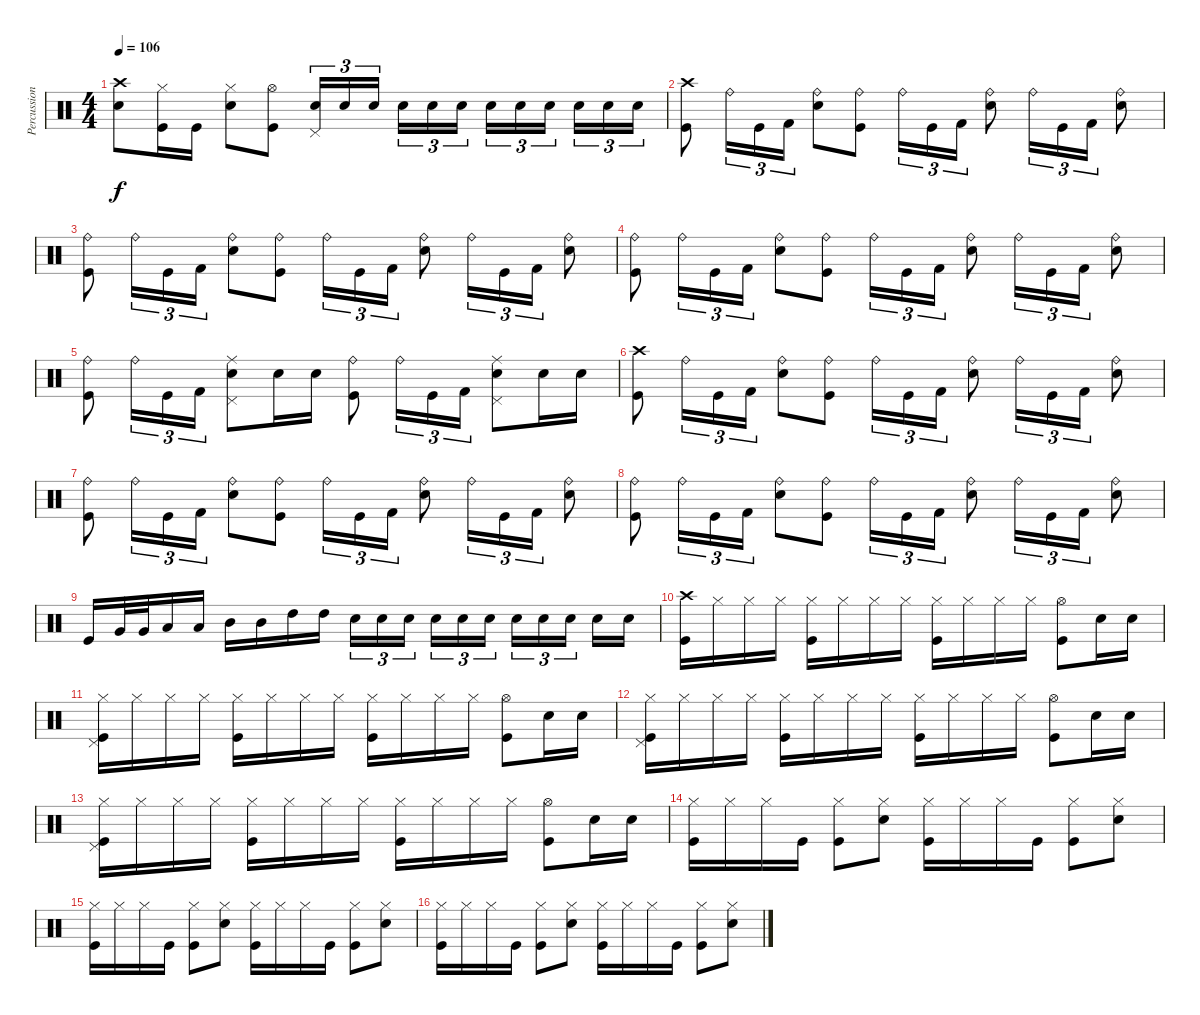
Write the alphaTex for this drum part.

\track ("Percussion" "Percussion") {instrument percussion}
\staff {score}
\articulation defaults
\ts (4 4)
\tempo 106
\clef neutral
\ks c
("Crash high (hit)" "Snare (hit) 2").8{dy f} ("Hi-Hat (closed)" "Kick (hit)").16 "Kick (hit)".16 ("Snare (hit) 2" "Hi-Hat (closed)").8 ("Hi-Hat (open)" "Kick (hit)").8 ("Snare (hit) 2" "Pedal Hi-Hat (hit)").16{tu (3 2)} "Snare (hit) 2".16{tu (3 2)} "Snare (hit) 2".16{tu (3 2)} "Snare (hit) 2".16{tu (3 2)} "Snare (hit) 2".16{tu (3 2)} "Snare (hit) 2".16{tu (3 2)} "Snare (hit) 2".16{tu (3 2)} "Snare (hit) 2".16{tu (3 2)} "Snare (hit) 2".16{tu (3 2)} "Snare (hit) 2".16{tu (3 2)} "Snare (hit) 2".16{tu (3 2)} "Snare (hit) 2".16{tu (3 2)} |
("Kick (hit)" "Crash high (hit)").8 "Ride (bell)".16{tu (3 2)} "Kick (hit)".16{tu (3 2)} "Kick (hit) 2".16{tu (3 2)} ("Snare (hit) 2" "Ride (bell)").8 ("Kick (hit)" "Ride (bell)").8 "Ride (bell)".16{tu (3 2)} "Kick (hit)".16{tu (3 2)} "Kick (hit) 2".16{tu (3 2)} ("Snare (hit) 2" "Ride (bell)").8 "Ride (bell)".16{tu (3 2)} "Kick (hit)".16{tu (3 2)} "Kick (hit) 2".16{tu (3 2)} ("Snare (hit) 2" "Ride (bell)").8 |
("Kick (hit)" "Ride (bell)").8 "Ride (bell)".16{tu (3 2)} "Kick (hit)".16{tu (3 2)} "Kick (hit) 2".16{tu (3 2)} ("Snare (hit) 2" "Ride (bell)").8 ("Kick (hit)" "Ride (bell)").8 "Ride (bell)".16{tu (3 2)} "Kick (hit)".16{tu (3 2)} "Kick (hit) 2".16{tu (3 2)} ("Snare (hit) 2" "Ride (bell)").8 "Ride (bell)".16{tu (3 2)} "Kick (hit)".16{tu (3 2)} "Kick (hit) 2".16{tu (3 2)} ("Snare (hit) 2" "Ride (bell)").8 |
("Kick (hit)" "Ride (bell)").8 "Ride (bell)".16{tu (3 2)} "Kick (hit)".16{tu (3 2)} "Kick (hit) 2".16{tu (3 2)} ("Snare (hit) 2" "Ride (bell)").8 ("Kick (hit)" "Ride (bell)").8 "Ride (bell)".16{tu (3 2)} "Kick (hit)".16{tu (3 2)} "Kick (hit) 2".16{tu (3 2)} ("Snare (hit) 2" "Ride (bell)").8 "Ride (bell)".16{tu (3 2)} "Kick (hit)".16{tu (3 2)} "Kick (hit) 2".16{tu (3 2)} ("Snare (hit) 2" "Ride (bell)").8 |
("Kick (hit)" "Ride (bell)").8 "Ride (bell)".16{tu (3 2)} "Kick (hit)".16{tu (3 2)} "Kick (hit) 2".16{tu (3 2)} ("Pedal Hi-Hat (hit)" "Ride (middle)" "Snare (hit) 2").8 "Snare (hit) 2".16 "Snare (hit) 2".16 ("Kick (hit)" "Ride (bell)").8 "Ride (bell)".16{tu (3 2)} "Kick (hit)".16{tu (3 2)} "Kick (hit) 2".16{tu (3 2)} ("Pedal Hi-Hat (hit)" "Ride (middle)" "Snare (hit) 2").8 "Snare (hit) 2".16 "Snare (hit) 2".16 |
("Kick (hit)" "Crash high (hit)").8 "Ride (bell)".16{tu (3 2)} "Kick (hit)".16{tu (3 2)} "Kick (hit) 2".16{tu (3 2)} ("Snare (hit) 2" "Ride (bell)").8 ("Kick (hit)" "Ride (bell)").8 "Ride (bell)".16{tu (3 2)} "Kick (hit)".16{tu (3 2)} "Kick (hit) 2".16{tu (3 2)} ("Snare (hit) 2" "Ride (bell)").8 "Ride (bell)".16{tu (3 2)} "Kick (hit)".16{tu (3 2)} "Kick (hit) 2".16{tu (3 2)} ("Snare (hit) 2" "Ride (bell)").8 |
("Kick (hit)" "Ride (bell)").8 "Ride (bell)".16{tu (3 2)} "Kick (hit)".16{tu (3 2)} "Kick (hit) 2".16{tu (3 2)} ("Snare (hit) 2" "Ride (bell)").8 ("Kick (hit)" "Ride (bell)").8 "Ride (bell)".16{tu (3 2)} "Kick (hit)".16{tu (3 2)} "Kick (hit) 2".16{tu (3 2)} ("Snare (hit) 2" "Ride (bell)").8 "Ride (bell)".16{tu (3 2)} "Kick (hit)".16{tu (3 2)} "Kick (hit) 2".16{tu (3 2)} ("Snare (hit) 2" "Ride (bell)").8 |
("Kick (hit)" "Ride (bell)").8 "Ride (bell)".16{tu (3 2)} "Kick (hit)".16{tu (3 2)} "Kick (hit) 2".16{tu (3 2)} ("Snare (hit) 2" "Ride (bell)").8 ("Kick (hit)" "Ride (bell)").8 "Ride (bell)".16{tu (3 2)} "Kick (hit)".16{tu (3 2)} "Kick (hit) 2".16{tu (3 2)} ("Snare (hit) 2" "Ride (bell)").8 "Ride (bell)".16{tu (3 2)} "Kick (hit)".16{tu (3 2)} "Kick (hit) 2".16{tu (3 2)} ("Snare (hit) 2" "Ride (bell)").8 |
"Kick (hit)".16 "Very Low Tom (hit)".32 "Very Low Tom (hit)".32 "Low Tom (hit)".16 "Low Tom (hit)".16 "Mid Tom (hit)".16 "Mid Tom (hit)".16 "High Tom (hit)".16 "High Tom (hit)".16 "Snare (hit) 2".16{tu (3 2)} "Snare (hit) 2".16{tu (3 2)} "Snare (hit) 2".16{tu (3 2)} "Snare (hit) 2".16{tu (3 2)} "Snare (hit) 2".16{tu (3 2)} "Snare (hit) 2".16{tu (3 2)} "Snare (hit) 2".16{tu (3 2)} "Snare (hit) 2".16{tu (3 2)} "Snare (hit) 2".16{tu (3 2)} "Snare (hit) 2".16 "Snare (hit) 2".16 |
("Kick (hit)" "Crash high (hit)").16 "Hi-Hat (closed)".16 "Hi-Hat (closed)".16 "Hi-Hat (closed)".16 ("Kick (hit)" "Hi-Hat (closed)").16 "Hi-Hat (closed)".16 "Hi-Hat (closed)".16 "Hi-Hat (closed)".16 ("Kick (hit)" "Hi-Hat (closed)").16 "Hi-Hat (closed)".16 "Hi-Hat (closed)".16 "Hi-Hat (closed)".16 ("Hi-Hat (open)" "Kick (hit)").8 "Snare (hit) 2".16 "Snare (hit) 2".16 |
("Kick (hit)" "Pedal Hi-Hat (hit)" "Hi-Hat (closed)").16 "Hi-Hat (closed)".16 "Hi-Hat (closed)".16 "Hi-Hat (closed)".16 ("Kick (hit)" "Hi-Hat (closed)").16 "Hi-Hat (closed)".16 "Hi-Hat (closed)".16 "Hi-Hat (closed)".16 ("Kick (hit)" "Hi-Hat (closed)").16 "Hi-Hat (closed)".16 "Hi-Hat (closed)".16 "Hi-Hat (closed)".16 ("Hi-Hat (open)" "Kick (hit)").8 "Snare (hit) 2".16 "Snare (hit) 2".16 |
("Kick (hit)" "Pedal Hi-Hat (hit)" "Hi-Hat (closed)").16 "Hi-Hat (closed)".16 "Hi-Hat (closed)".16 "Hi-Hat (closed)".16 ("Kick (hit)" "Hi-Hat (closed)").16 "Hi-Hat (closed)".16 "Hi-Hat (closed)".16 "Hi-Hat (closed)".16 ("Kick (hit)" "Hi-Hat (closed)").16 "Hi-Hat (closed)".16 "Hi-Hat (closed)".16 "Hi-Hat (closed)".16 ("Hi-Hat (open)" "Kick (hit)").8 "Snare (hit) 2".16 "Snare (hit) 2".16 |
("Kick (hit)" "Pedal Hi-Hat (hit)" "Hi-Hat (closed)").16 "Hi-Hat (closed)".16 "Hi-Hat (closed)".16 "Hi-Hat (closed)".16 ("Kick (hit)" "Hi-Hat (closed)").16 "Hi-Hat (closed)".16 "Hi-Hat (closed)".16 "Hi-Hat (closed)".16 ("Kick (hit)" "Hi-Hat (closed)").16 "Hi-Hat (closed)".16 "Hi-Hat (closed)".16 "Hi-Hat (closed)".16 ("Hi-Hat (open)" "Kick (hit)").8 "Snare (hit) 2".16 "Snare (hit) 2".16 |
("Kick (hit)" "Hi-Hat (closed)").16 "Hi-Hat (closed)".16 "Hi-Hat (closed)".16 "Kick (hit)".16 ("Kick (hit)" "Hi-Hat (closed)").8 ("Electric Snare (hit)" "Hi-Hat (closed)").8 ("Kick (hit)" "Hi-Hat (closed)").16 "Hi-Hat (closed)".16 "Hi-Hat (closed)".16 "Kick (hit)".16 ("Kick (hit)" "Hi-Hat (closed)").8 ("Electric Snare (hit)" "Hi-Hat (closed)").8 |
("Kick (hit)" "Hi-Hat (closed)").16 "Hi-Hat (closed)".16 "Hi-Hat (closed)".16 "Kick (hit)".16 ("Kick (hit)" "Hi-Hat (closed)").8 ("Electric Snare (hit)" "Hi-Hat (closed)").8 ("Kick (hit)" "Hi-Hat (closed)").16 "Hi-Hat (closed)".16 "Hi-Hat (closed)".16 "Kick (hit)".16 ("Kick (hit)" "Hi-Hat (closed)").8 ("Electric Snare (hit)" "Hi-Hat (closed)").8 |
("Kick (hit)" "Hi-Hat (closed)").16 "Hi-Hat (closed)".16 "Hi-Hat (closed)".16 "Kick (hit)".16 ("Kick (hit)" "Hi-Hat (closed)").8 ("Electric Snare (hit)" "Hi-Hat (closed)").8 ("Kick (hit)" "Hi-Hat (closed)").16 "Hi-Hat (closed)".16 "Hi-Hat (closed)".16 "Kick (hit)".16 ("Kick (hit)" "Hi-Hat (closed)").8 ("Electric Snare (hit)" "Hi-Hat (closed)").8
